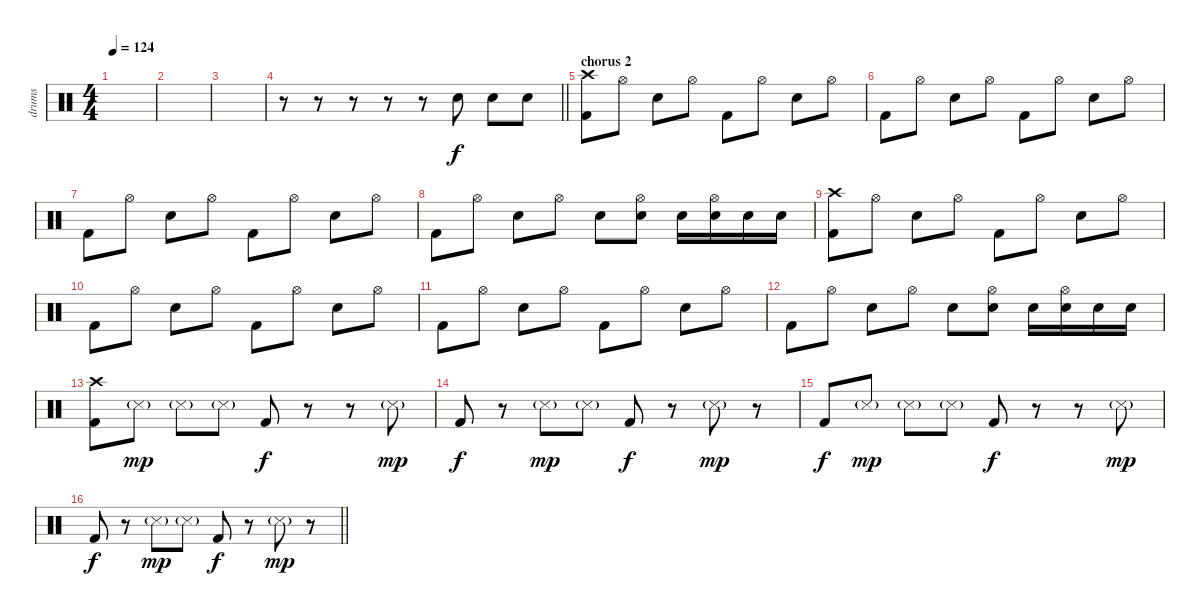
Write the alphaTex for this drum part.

\track ("drums" "drums") {instrument percussion}
\staff {score}
\articulation defaults
\ts (4 4)
\tempo 124
\clef neutral
\ks c
|
|
|
\barLineRight lightlight
r.8 r.8 r.8 r.8 r.8 "Electric Snare (hit)".8{dy f} "Electric Snare (hit)".8 "Electric Snare (hit)".8 |
\section ("" "chorus 2")
("Kick (hit) 2" "Crash high (hit)").8 "Hi-Hat (open)".8 "Electric Snare (hit)".8 "Hi-Hat (open)".8 "Kick (hit) 2".8 "Hi-Hat (open)".8 "Electric Snare (hit)".8 "Hi-Hat (open)".8 |
"Kick (hit) 2".8 "Hi-Hat (open)".8 "Electric Snare (hit)".8 "Hi-Hat (open)".8 "Kick (hit) 2".8 "Hi-Hat (open)".8 "Electric Snare (hit)".8 "Hi-Hat (open)".8 |
"Kick (hit) 2".8 "Hi-Hat (open)".8 "Electric Snare (hit)".8 "Hi-Hat (open)".8 "Kick (hit) 2".8 "Hi-Hat (open)".8 "Electric Snare (hit)".8 "Hi-Hat (open)".8 |
"Kick (hit) 2".8 "Hi-Hat (open)".8 "Electric Snare (hit)".8 "Hi-Hat (open)".8 "Electric Snare (hit)".8 ("Electric Snare (hit)" "Hi-Hat (open)").8 "Electric Snare (hit)".16 ("Electric Snare (hit)" "Hi-Hat (open)").16 "Electric Snare (hit)".16 "Electric Snare (hit)".16 |
("Kick (hit) 2" "Crash high (hit)").8 "Hi-Hat (open)".8 "Electric Snare (hit)".8 "Hi-Hat (open)".8 "Kick (hit) 2".8 "Hi-Hat (open)".8 "Electric Snare (hit)".8 "Hi-Hat (open)".8 |
"Kick (hit) 2".8 "Hi-Hat (open)".8 "Electric Snare (hit)".8 "Hi-Hat (open)".8 "Kick (hit) 2".8 "Hi-Hat (open)".8 "Electric Snare (hit)".8 "Hi-Hat (open)".8 |
"Kick (hit) 2".8 "Hi-Hat (open)".8 "Electric Snare (hit)".8 "Hi-Hat (open)".8 "Kick (hit) 2".8 "Hi-Hat (open)".8 "Electric Snare (hit)".8 "Hi-Hat (open)".8 |
"Kick (hit) 2".8 "Hi-Hat (open)".8 "Electric Snare (hit)".8 "Hi-Hat (open)".8 "Electric Snare (hit)".8 ("Electric Snare (hit)" "Hi-Hat (open)").8 "Electric Snare (hit)".16 ("Electric Snare (hit)" "Hi-Hat (open)").16 "Electric Snare (hit)".16 "Electric Snare (hit)".16 |
("Kick (hit) 2" "Crash high (hit)").8 "Snare (side stick) 3"{g}.8{dy mp} "Snare (side stick) 3"{g}.8 "Snare (side stick) 3"{g}.8 "Kick (hit) 2".8{dy f} r.8 r.8 "Snare (side stick) 3"{g}.8{dy mp} |
"Kick (hit) 2".8{dy f} r.8 "Snare (side stick) 3"{g}.8{dy mp} "Snare (side stick) 3"{g}.8 "Kick (hit) 2".8{dy f} r.8 "Snare (side stick) 3"{g}.8{dy mp} r.8 |
"Kick (hit) 2".8{dy f} "Snare (side stick) 3"{g}.8{dy mp} "Snare (side stick) 3"{g}.8 "Snare (side stick) 3"{g}.8 "Kick (hit) 2".8{dy f} r.8 r.8 "Snare (side stick) 3"{g}.8{dy mp} |
\barLineRight lightlight "Kick (hit) 2".8{dy f}
r.8 "Snare (side stick) 3"{g}.8{dy mp} "Snare (side stick) 3"{g}.8 "Kick (hit) 2".8{dy f} r.8 "Snare (side stick) 3"{g}.8{dy mp} r.8
